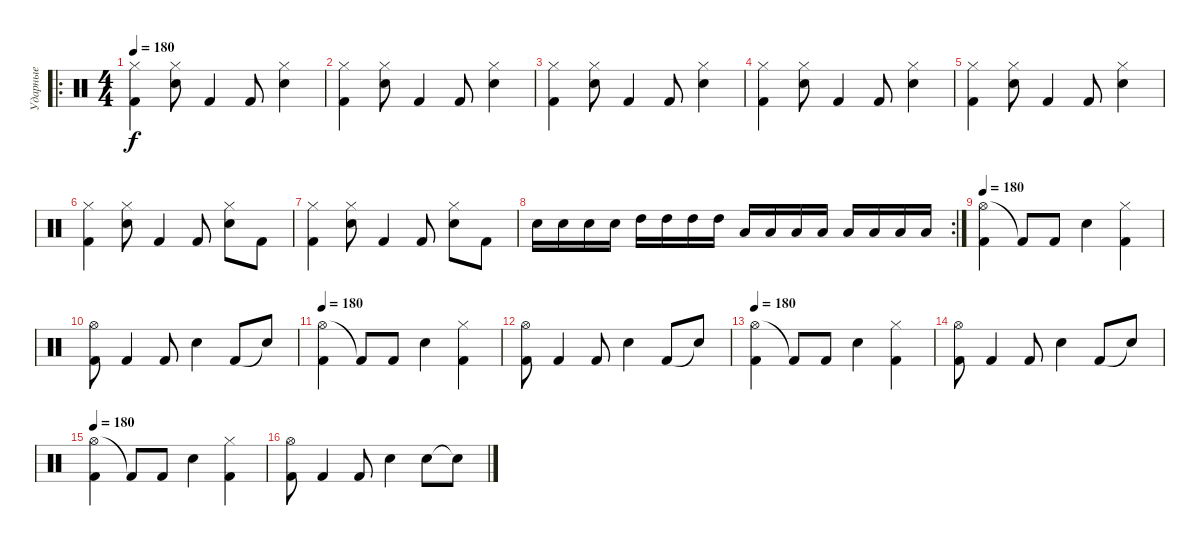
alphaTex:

\track ("Ударные" "Ударные") {instrument percussion}
\staff {score}
\articulation defaults
\ro
\ts (4 4)
\tempo 180
\clef neutral
\ks c
("Hi-Hat (closed)" "Kick (hit) 2").4{dy f} ("Hi-Hat (closed)" "Snare (hit) 2").8 "Kick (hit) 2".4 "Kick (hit) 2".8 ("Hi-Hat (closed)" "Snare (hit) 2").4 |
("Hi-Hat (closed)" "Kick (hit) 2").4 ("Hi-Hat (closed)" "Snare (hit) 2").8 "Kick (hit) 2".4 "Kick (hit) 2".8 ("Hi-Hat (closed)" "Snare (hit) 2").4 |
("Hi-Hat (closed)" "Kick (hit) 2").4 ("Hi-Hat (closed)" "Snare (hit) 2").8 "Kick (hit) 2".4 "Kick (hit) 2".8 ("Hi-Hat (closed)" "Snare (hit) 2").4 |
("Hi-Hat (closed)" "Kick (hit) 2").4 ("Hi-Hat (closed)" "Snare (hit) 2").8 "Kick (hit) 2".4 "Kick (hit) 2".8 ("Hi-Hat (closed)" "Snare (hit) 2").4 |
("Hi-Hat (closed)" "Kick (hit) 2").4 ("Hi-Hat (closed)" "Snare (hit) 2").8 "Kick (hit) 2".4 "Kick (hit) 2".8 ("Hi-Hat (closed)" "Snare (hit) 2").4 |
("Hi-Hat (closed)" "Kick (hit) 2").4 ("Hi-Hat (closed)" "Snare (hit) 2").8 "Kick (hit) 2".4 "Kick (hit) 2".8 ("Hi-Hat (closed)" "Snare (hit) 2").8 "Kick (hit) 2".8 |
("Hi-Hat (closed)" "Kick (hit) 2").4 ("Hi-Hat (closed)" "Snare (hit) 2").8 "Kick (hit) 2".4 "Kick (hit) 2".8 ("Hi-Hat (closed)" "Snare (hit) 2").8 "Kick (hit) 2".8 |
\rc 2 "Snare (hit) 2".16 "Snare (hit) 2".16 "Snare (hit) 2".16 "Snare (hit) 2".16 "High Tom (hit)".16 "High Tom (hit)".16 "High Tom (hit)".16 "High Tom (hit)".16 "Low Tom (hit)".16 "Low Tom (hit)".16 "Low Tom (hit)".16 "Low Tom (hit)".16 "Low Floor Tom (hit)".16 "Low Floor Tom (hit)".16 "Low Floor Tom (hit)".16 "Low Floor Tom (hit)".16
|
\tempo 180
("Hi-Hat (open)" "Kick (hit) 2").4 "Kick (hit) 2"{t}.8 "Kick (hit) 2".8 "Snare (hit) 2".4 ("Hi-Hat (closed)" "Kick (hit) 2").4 |
("Hi-Hat (open)" "Kick (hit) 2").8 "Kick (hit) 2".4 "Kick (hit) 2".8 "Snare (hit) 2".4 "Kick (hit) 2".8 "Snare (hit)"{t}.8 |
\tempo 180
("Hi-Hat (open)" "Kick (hit) 2").4 "Kick (hit) 2"{t}.8 "Kick (hit) 2".8 "Snare (hit) 2".4 ("Hi-Hat (closed)" "Kick (hit) 2").4 |
("Hi-Hat (open)" "Kick (hit) 2").8 "Kick (hit) 2".4 "Kick (hit) 2".8 "Snare (hit) 2".4 "Kick (hit) 2".8 "Snare (hit)"{t}.8 |
\tempo 180
("Hi-Hat (open)" "Kick (hit) 2").4 "Kick (hit) 2"{t}.8 "Kick (hit) 2".8 "Snare (hit) 2".4 ("Hi-Hat (closed)" "Kick (hit) 2").4 |
("Hi-Hat (open)" "Kick (hit) 2").8 "Kick (hit) 2".4 "Kick (hit) 2".8 "Snare (hit) 2".4 "Kick (hit) 2".8 "Snare (hit)"{t}.8 |
\tempo 180
("Hi-Hat (open)" "Kick (hit) 2").4 "Kick (hit) 2"{t}.8 "Kick (hit) 2".8 "Snare (hit) 2".4 ("Hi-Hat (closed)" "Kick (hit) 2").4 |
("Hi-Hat (open)" "Kick (hit) 2").8 "Kick (hit) 2".4 "Kick (hit) 2".8 "Snare (hit) 2".4 "Snare (hit) 2".8 "Snare (hit)"{t}.8
